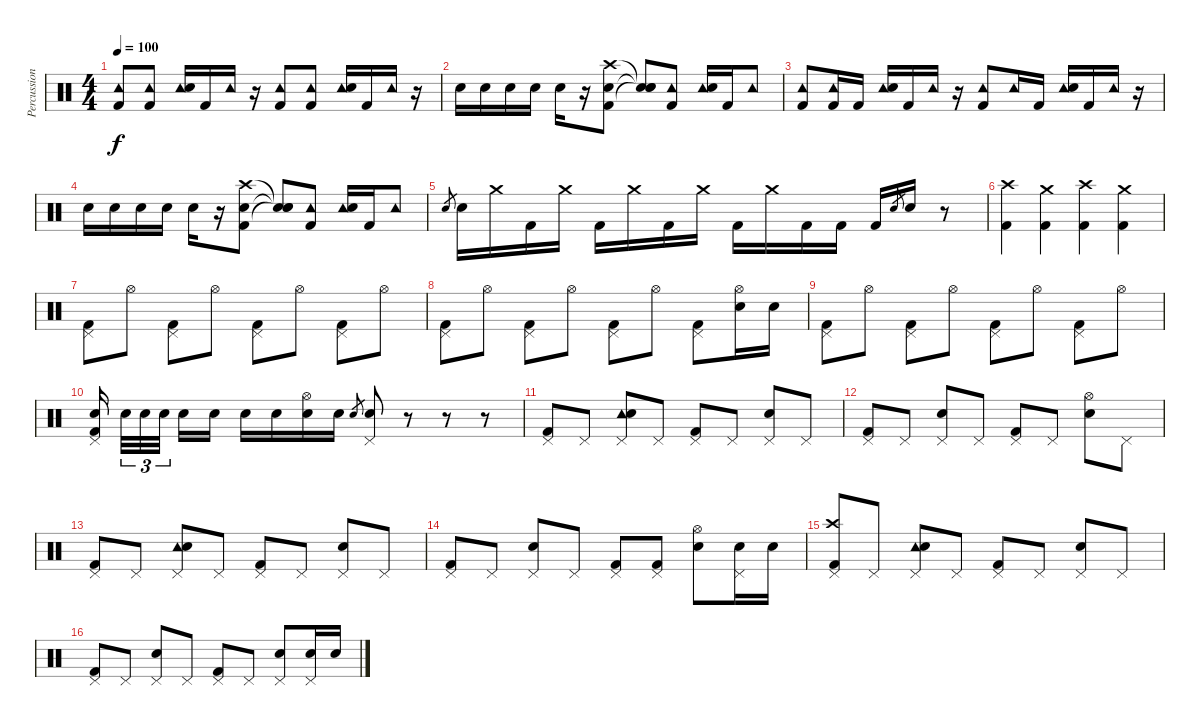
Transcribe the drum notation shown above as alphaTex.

\track ("Percussion" "Percussion") {instrument percussion}
\staff {score}
\articulation defaults
\ts (4 4)
\tempo 100
\clef neutral
\ks c
("Tambourine (hit)" "Kick (hit) 2").8{dy f} ("Tambourine (hit)" "Kick (hit) 2").8 ("Tambourine (hit)" "Snare (hit) 2").16 "Kick (hit) 2".16 "Tambourine (hit)".16 r.16 ("Tambourine (hit)" "Kick (hit) 2").8 ("Tambourine (hit)" "Kick (hit) 2").8 ("Tambourine (hit)" "Snare (hit) 2").16 "Kick (hit) 2".16 "Tambourine (hit)".16 r.16 |
"Snare (hit) 2".16 "Snare (hit) 2".16 "Snare (hit) 2".16 "Snare (hit) 2".16 "Snare (hit) 2".16 r.16 ("Crash high (hit)" "Snare (hit) 2" "Kick (hit) 2").8 ("Snare (hit)"{t} "Snare (hit)"{t} "Snare (hit)"{t}).8 ("Tambourine (hit)" "Kick (hit) 2").8 ("Tambourine (hit)" "Snare (hit) 2").16 "Kick (hit) 2".16 "Tambourine (hit)".8 |
("Tambourine (hit)" "Kick (hit) 2").8 ("Tambourine (hit)" "Kick (hit) 2").16 "Kick (hit) 2".16 ("Tambourine (hit)" "Snare (hit) 2").16 "Kick (hit) 2".16 "Tambourine (hit)".16 r.16 ("Tambourine (hit)" "Kick (hit) 2").8 "Tambourine (hit)".16 "Kick (hit) 2".16 ("Tambourine (hit)" "Snare (hit) 2").16 "Kick (hit) 2".16 "Tambourine (hit)".16 r.16 |
"Snare (hit) 2".16 "Snare (hit) 2".16 "Snare (hit) 2".16 "Snare (hit) 2".16 "Snare (hit) 2".16 r.16 ("Crash high (hit)" "Snare (hit) 2" "Kick (hit) 2").8 ("Snare (hit)"{t} "Snare (hit)"{t} "Snare (hit)"{t}).8 ("Tambourine (hit)" "Kick (hit) 2").8 ("Tambourine (hit)" "Snare (hit) 2").16 "Kick (hit) 2".16 "Tambourine (hit)".8 |
"Snare (hit) 2".8{gr} "Snare (hit) 2".16 "Crash medium (hit)".16 "Kick (hit) 2".16 "Crash medium (hit)".16 "Kick (hit) 2".16 "Crash medium (hit)".16 "Kick (hit) 2".16 "Crash medium (hit)".16 "Kick (hit) 2".16 "Crash medium (hit)".16 "Kick (hit) 2".16 "Kick (hit) 2".16 "Kick (hit) 2".16 "Snare (hit) 2".8{gr} "Snare (hit) 2".16 r.8 |
("Crash high (hit)" "Kick (hit) 2").4 ("Crash medium (hit)" "Kick (hit) 2").4 ("Crash high (hit)" "Kick (hit) 2").4 ("Crash medium (hit)" "Kick (hit) 2").4 |
("Pedal Hi-Hat (hit)" "Kick (hit) 2").8 "Hi-Hat (open)".8 ("Pedal Hi-Hat (hit)" "Kick (hit) 2").8 "Hi-Hat (open)".8 ("Pedal Hi-Hat (hit)" "Kick (hit) 2").8 "Hi-Hat (open)".8 ("Pedal Hi-Hat (hit)" "Kick (hit) 2").8 "Hi-Hat (open)".8 |
("Pedal Hi-Hat (hit)" "Kick (hit) 2").8 "Hi-Hat (open)".8 ("Pedal Hi-Hat (hit)" "Kick (hit) 2").8 "Hi-Hat (open)".8 ("Pedal Hi-Hat (hit)" "Kick (hit) 2").8 "Hi-Hat (open)".8 ("Pedal Hi-Hat (hit)" "Kick (hit) 2").8 ("Hi-Hat (open)" "Snare (hit) 2").16 "Snare (hit) 2".16 |
("Pedal Hi-Hat (hit)" "Kick (hit) 2").8 "Hi-Hat (open)".8 ("Pedal Hi-Hat (hit)" "Kick (hit) 2").8 "Hi-Hat (open)".8 ("Pedal Hi-Hat (hit)" "Kick (hit) 2").8 "Hi-Hat (open)".8 ("Pedal Hi-Hat (hit)" "Kick (hit) 2").8 "Hi-Hat (open)".8 |
("Pedal Hi-Hat (hit)" "Snare (hit) 2" "Kick (hit) 2").16 "Snare (hit) 2".32{tu (3 2)} "Snare (hit) 2".32{tu (3 2)} "Snare (hit) 2".32{tu (3 2)} "Snare (hit) 2".16 "Snare (hit) 2".16 "Snare (hit) 2".16 "Snare (hit) 2".16 ("Hi-Hat (open)" "Snare (hit) 2").16 "Snare (hit) 2".16 "Snare (hit) 2".8{gr} ("Pedal Hi-Hat (hit)" "Snare (hit) 2").8 r.8 r.8 r.8 |
("Pedal Hi-Hat (hit)" "Kick (hit) 2").8 "Pedal Hi-Hat (hit)".8 ("Pedal Hi-Hat (hit)" "Tambourine (hit)" "Snare (hit) 2").8 "Pedal Hi-Hat (hit)".8 ("Pedal Hi-Hat (hit)" "Kick (hit) 2").8 "Pedal Hi-Hat (hit)".8 ("Pedal Hi-Hat (hit)" "Snare (hit) 2").8 "Pedal Hi-Hat (hit)".8 |
("Pedal Hi-Hat (hit)" "Kick (hit) 2").8 "Pedal Hi-Hat (hit)".8 ("Pedal Hi-Hat (hit)" "Snare (hit) 2").8 "Pedal Hi-Hat (hit)".8 ("Pedal Hi-Hat (hit)" "Kick (hit) 2").8 "Pedal Hi-Hat (hit)".8 ("Hi-Hat (open)" "Snare (hit) 2").8 "Pedal Hi-Hat (hit)".8 |
("Pedal Hi-Hat (hit)" "Kick (hit) 2").8 "Pedal Hi-Hat (hit)".8 ("Pedal Hi-Hat (hit)" "Tambourine (hit)" "Snare (hit) 2").8 "Pedal Hi-Hat (hit)".8 ("Pedal Hi-Hat (hit)" "Kick (hit) 2").8 "Pedal Hi-Hat (hit)".8 ("Pedal Hi-Hat (hit)" "Snare (hit) 2").8 "Pedal Hi-Hat (hit)".8 |
("Pedal Hi-Hat (hit)" "Kick (hit) 2").8 "Pedal Hi-Hat (hit)".8 ("Pedal Hi-Hat (hit)" "Snare (hit) 2").8 "Pedal Hi-Hat (hit)".8 ("Pedal Hi-Hat (hit)" "Kick (hit) 2").8 ("Pedal Hi-Hat (hit)" "Kick (hit) 2").8 ("Hi-Hat (open)" "Snare (hit) 2").8 ("Pedal Hi-Hat (hit)" "Snare (hit) 2").16 "Snare (hit) 2".16 |
("Pedal Hi-Hat (hit)" "Crash high (hit)" "Kick (hit) 2").8 "Pedal Hi-Hat (hit)".8 ("Pedal Hi-Hat (hit)" "Tambourine (hit)" "Snare (hit) 2").8 "Pedal Hi-Hat (hit)".8 ("Pedal Hi-Hat (hit)" "Kick (hit) 2").8 "Pedal Hi-Hat (hit)".8 ("Pedal Hi-Hat (hit)" "Snare (hit) 2").8 "Pedal Hi-Hat (hit)".8 |
("Pedal Hi-Hat (hit)" "Kick (hit) 2").8 "Pedal Hi-Hat (hit)".8 ("Pedal Hi-Hat (hit)" "Snare (hit) 2").8 "Pedal Hi-Hat (hit)".8 ("Pedal Hi-Hat (hit)" "Kick (hit) 2").8 "Pedal Hi-Hat (hit)".8 ("Pedal Hi-Hat (hit)" "Snare (hit) 2").8 ("Pedal Hi-Hat (hit)" "Snare (hit) 2").16 "Snare (hit) 2".16
